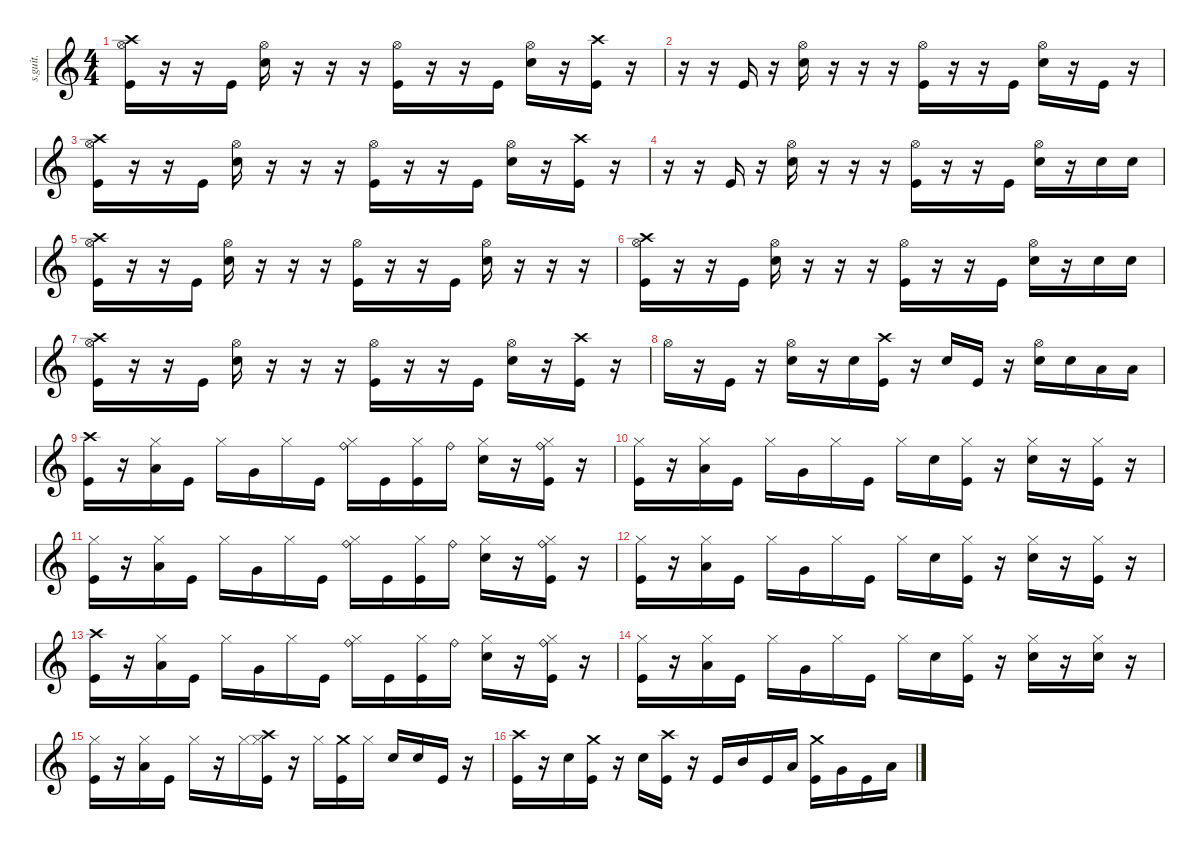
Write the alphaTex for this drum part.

\defaultSystemsLayout 4
\hideDynamics
\bracketExtendMode nobrackets
\track ("Percussion" "s.guit.") {instrument percussion}
\staff {score}
\articulation defaults
\ts (4 4)
\tempo (128 hide)
\clef g2
\ks c
("Crash high (hit)" "Hi-Hat (open)" "Kick (hit)").16{dy f} r.16 r.16 "Kick (hit)".16 ("Hi-Hat (open)" "Electric Snare (hit)").16 r.16 r.16 r.16 ("Hi-Hat (open)" "Kick (hit)").16 r.16 r.16 "Kick (hit)".16 ("Hi-Hat (open)" "Electric Snare (hit)").16 r.16 ("Crash high (hit)" "Kick (hit)").16 r.16 |
r.16 r.16 "Kick (hit)".16 r.16 ("Hi-Hat (open)" "Electric Snare (hit)").16 r.16 r.16 r.16 ("Hi-Hat (open)" "Kick (hit)").16 r.16 r.16 "Kick (hit)".16 ("Hi-Hat (open)" "Electric Snare (hit)").16 r.16 "Kick (hit)".16 r.16 |
("Crash high (hit)" "Hi-Hat (open)" "Kick (hit)").16 r.16 r.16 "Kick (hit)".16 ("Hi-Hat (open)" "Electric Snare (hit)").16 r.16 r.16 r.16 ("Hi-Hat (open)" "Kick (hit)").16 r.16 r.16 "Kick (hit)".16 ("Hi-Hat (open)" "Electric Snare (hit)").16 r.16 ("Crash high (hit)" "Kick (hit)").16 r.16 |
r.16 r.16 "Kick (hit)".16 r.16 ("Hi-Hat (open)" "Electric Snare (hit)").16 r.16 r.16 r.16 ("Hi-Hat (open)" "Kick (hit)").16 r.16 r.16 "Kick (hit)".16 ("Hi-Hat (open)" "Electric Snare (hit)").16 r.16 "Electric Snare (hit)".16 "Electric Snare (hit)".16 |
("Crash high (hit)" "Hi-Hat (open)" "Kick (hit)").16 r.16 r.16 "Kick (hit)".16 ("Hi-Hat (open)" "Electric Snare (hit)").16 r.16 r.16 r.16 ("Hi-Hat (open)" "Kick (hit)").16 r.16 r.16 "Kick (hit)".16 ("Hi-Hat (open)" "Electric Snare (hit)").16 r.16 r.16 r.16 |
("Crash high (hit)" "Hi-Hat (open)" "Kick (hit)").16 r.16 r.16 "Kick (hit)".16 ("Hi-Hat (open)" "Electric Snare (hit)").16 r.16 r.16 r.16 ("Hi-Hat (open)" "Kick (hit)").16 r.16 r.16 "Kick (hit)".16 ("Hi-Hat (open)" "Electric Snare (hit)").16 r.16 "Electric Snare (hit)".16 "Electric Snare (hit)".16 |
("Crash high (hit)" "Hi-Hat (open)" "Kick (hit)").16 r.16 r.16 "Kick (hit)".16 ("Hi-Hat (open)" "Electric Snare (hit)").16 r.16 r.16 r.16 ("Hi-Hat (open)" "Kick (hit)").16 r.16 r.16 "Kick (hit)".16 ("Hi-Hat (open)" "Electric Snare (hit)").16 r.16 ("Crash high (hit)" "Kick (hit)").16 r.16 |
"Hi-Hat (open)".16 r.16 "Kick (hit)".16 r.16 ("Hi-Hat (open)" "Electric Snare (hit)").16 r.16 "Electric Snare (hit)".16 ("Crash high (hit)" "Kick (hit)").16 r.16 "Electric Snare (hit)".16 "Kick (hit)".16 r.16 ("Hi-Hat (open)" "Electric Snare (hit)").16 "Electric Snare (hit)".16 "Low Floor Tom (hit)".16 "Low Floor Tom (hit)".16 |
("Crash high (hit)" "Kick (hit)").16 r.16 ("Hi-Hat (closed)" "Low Tom (hit)").16 "Kick (hit)".16 "Hi-Hat (closed)".16 "Very Low Tom (hit)".16 "Hi-Hat (closed)".16 "Kick (hit)".16 ("Ride (bell)" "Hi-Hat (closed)").16 "Kick (hit)".16 ("Hi-Hat (closed)" "Kick (hit)").16 "Ride (bell)".16 ("Hi-Hat (closed)" "Electric Snare (hit)").16 r.16 ("Ride (bell)" "Hi-Hat (closed)" "Kick (hit)").16 r.16 |
("Hi-Hat (closed)" "Kick (hit)").16 r.16 ("Hi-Hat (closed)" "Low Tom (hit)").16 "Kick (hit)".16 "Hi-Hat (closed)".16 "Very Low Tom (hit)".16 "Hi-Hat (closed)".16 "Kick (hit)".16 "Hi-Hat (closed)".16 "Electric Snare (hit)".16 ("Hi-Hat (closed)" "Kick (hit)").16 r.16 ("Hi-Hat (closed)" "Electric Snare (hit)").16 r.16 ("Hi-Hat (closed)" "Kick (hit)").16 r.16 |
("Hi-Hat (closed)" "Kick (hit)").16 r.16 ("Hi-Hat (closed)" "Low Tom (hit)").16 "Kick (hit)".16 "Hi-Hat (closed)".16 "Very Low Tom (hit)".16 "Hi-Hat (closed)".16 "Kick (hit)".16 ("Ride (bell)" "Hi-Hat (closed)").16 "Kick (hit)".16 ("Hi-Hat (closed)" "Kick (hit)").16 "Ride (bell)".16 ("Hi-Hat (closed)" "Electric Snare (hit)").16 r.16 ("Ride (bell)" "Hi-Hat (closed)" "Kick (hit)").16 r.16 |
("Hi-Hat (closed)" "Kick (hit)").16 r.16 ("Hi-Hat (closed)" "Low Tom (hit)").16 "Kick (hit)".16 "Hi-Hat (closed)".16 "Very Low Tom (hit)".16 "Hi-Hat (closed)".16 "Kick (hit)".16 "Hi-Hat (closed)".16 "Electric Snare (hit)".16 ("Hi-Hat (closed)" "Kick (hit)").16 r.16 ("Hi-Hat (closed)" "Electric Snare (hit)").16 r.16 ("Hi-Hat (closed)" "Kick (hit)").16 r.16 |
("Crash high (hit)" "Kick (hit)").16 r.16 ("Hi-Hat (closed)" "Low Tom (hit)").16 "Kick (hit)".16 "Hi-Hat (closed)".16 "Very Low Tom (hit)".16 "Hi-Hat (closed)".16 "Kick (hit)".16 ("Ride (bell)" "Hi-Hat (closed)").16 "Kick (hit)".16 ("Hi-Hat (closed)" "Kick (hit)").16 "Ride (bell)".16 ("Hi-Hat (closed)" "Electric Snare (hit)").16 r.16 ("Ride (bell)" "Hi-Hat (closed)" "Kick (hit)").16 r.16 |
("Hi-Hat (closed)" "Kick (hit)").16 r.16 ("Hi-Hat (closed)" "Low Tom (hit)").16 "Kick (hit)".16 "Hi-Hat (closed)".16 "Very Low Tom (hit)".16 "Hi-Hat (closed)".16 "Kick (hit)".16 "Hi-Hat (closed)".16 "Electric Snare (hit)".16 ("Hi-Hat (closed)" "Kick (hit)").16 r.16 ("Hi-Hat (closed)" "Electric Snare (hit)").16 r.16 ("Hi-Hat (closed)" "Electric Snare (hit)").16 r.16 |
("Hi-Hat (closed)" "Kick (hit)").16 r.16 ("Hi-Hat (closed)" "Low Tom (hit)").16 "Kick (hit)".16 "Hi-Hat (closed)".16 r.16 "Hi-Hat (closed)".16 ("Crash high (hit)" "Hi-Hat (closed)" "Kick (hit)").16 r.16 "Hi-Hat (closed)".16 ("Crash medium (hit)" "Kick (hit)").16 "Hi-Hat (closed)".16 "Electric Snare (hit)".16 "Electric Snare (hit)".16 "Kick (hit)".16 r.16 |
("Crash high (hit)" "Kick (hit)").16 r.16 "Electric Snare (hit)".16 ("Crash medium (hit)" "Kick (hit)").16 r.16 "Electric Snare (hit)".16 ("Crash high (hit)" "Kick (hit)").16 r.16 "Kick (hit)".16 "Mid Tom (hit)".16 "Kick (hit)".16 "Low Tom (hit)".16 ("Crash medium (hit)" "Kick (hit)").16 "Very Low Tom (hit)".16 "Kick (hit)".16 "Low Floor Tom (hit)".16
